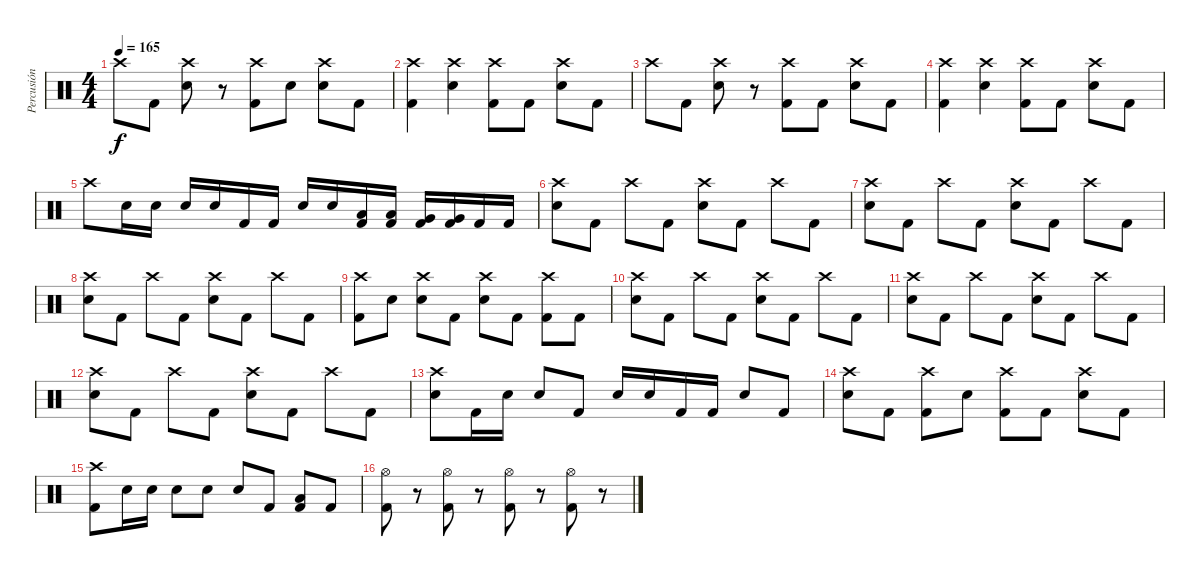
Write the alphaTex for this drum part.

\track ("Percusión" "Percusión") {instrument percussion}
\staff {score}
\articulation defaults
\ts (4 4)
\tempo 165
\clef neutral
\ks c "Crash high (hit)".8{dy f} "Kick (hit) 2".8
("Crash high (hit)" "Electric Snare (hit)").8 r.8 ("Crash high (hit)" "Kick (hit) 2").8 "Electric Snare (hit)".8 ("Crash high (hit)" "Electric Snare (hit)").8 "Kick (hit) 2".8 |
("Crash high (hit)" "Kick (hit) 2").4 ("Crash high (hit)" "Electric Snare (hit)").4 ("Crash high (hit)" "Kick (hit) 2").8 "Kick (hit) 2".8 ("Crash high (hit)" "Electric Snare (hit)").8 "Kick (hit) 2".8 |
"Crash high (hit)".8 "Kick (hit) 2".8 ("Crash high (hit)" "Electric Snare (hit)").8 r.8 ("Crash high (hit)" "Kick (hit) 2").8 "Kick (hit) 2".8 ("Crash high (hit)" "Electric Snare (hit)").8 "Kick (hit) 2".8 |
("Crash high (hit)" "Kick (hit) 2").4 ("Crash high (hit)" "Electric Snare (hit)").4 ("Crash high (hit)" "Kick (hit) 2").8 "Kick (hit) 2".8 ("Crash high (hit)" "Electric Snare (hit)").8 "Kick (hit) 2".8 |
"Crash high (hit)".8 "Electric Snare (hit)".16 "Electric Snare (hit)".16 "Electric Snare (hit)".16 "Electric Snare (hit)".16 "Kick (hit) 2".16 "Kick (hit) 2".16 "Electric Snare (hit)".16 "Electric Snare (hit)".16 ("Low Tom (hit)" "Kick (hit) 2").16 ("Low Tom (hit)" "Kick (hit) 2").16 ("Very Low Tom (hit)" "Kick (hit) 2").16 ("Very Low Tom (hit)" "Kick (hit) 2").16 "Kick (hit) 2".16 "Kick (hit) 2".16 |
("Crash high (hit)" "Electric Snare (hit)").8 "Kick (hit) 2".8 "Crash high (hit)".8 "Kick (hit) 2".8 ("Crash high (hit)" "Electric Snare (hit)").8 "Kick (hit) 2".8 "Crash high (hit)".8 "Kick (hit) 2".8 |
("Crash high (hit)" "Electric Snare (hit)").8 "Kick (hit) 2".8 "Crash high (hit)".8 "Kick (hit) 2".8 ("Crash high (hit)" "Electric Snare (hit)").8 "Kick (hit) 2".8 "Crash high (hit)".8 "Kick (hit) 2".8 |
("Crash high (hit)" "Electric Snare (hit)").8 "Kick (hit) 2".8 "Crash high (hit)".8 "Kick (hit) 2".8 ("Crash high (hit)" "Electric Snare (hit)").8 "Kick (hit) 2".8 "Crash high (hit)".8 "Kick (hit) 2".8 |
("Crash high (hit)" "Kick (hit) 2").8 "Electric Snare (hit)".8 ("Crash high (hit)" "Electric Snare (hit)").8 "Kick (hit) 2".8 ("Crash high (hit)" "Electric Snare (hit)").8 "Kick (hit) 2".8 ("Crash high (hit)" "Kick (hit) 2").8 "Kick (hit) 2".8 |
("Crash high (hit)" "Electric Snare (hit)").8 "Kick (hit) 2".8 "Crash high (hit)".8 "Kick (hit) 2".8 ("Crash high (hit)" "Electric Snare (hit)").8 "Kick (hit) 2".8 "Crash high (hit)".8 "Kick (hit) 2".8 |
("Crash high (hit)" "Electric Snare (hit)").8 "Kick (hit) 2".8 "Crash high (hit)".8 "Kick (hit) 2".8 ("Crash high (hit)" "Electric Snare (hit)").8 "Kick (hit) 2".8 "Crash high (hit)".8 "Kick (hit) 2".8 |
("Crash high (hit)" "Electric Snare (hit)").8 "Kick (hit) 2".8 "Crash high (hit)".8 "Kick (hit) 2".8 ("Crash high (hit)" "Electric Snare (hit)").8 "Kick (hit) 2".8 "Crash high (hit)".8 "Kick (hit) 2".8 |
("Crash high (hit)" "Electric Snare (hit)").8 "Kick (hit) 2".16 "Electric Snare (hit)".16 "Electric Snare (hit)".8 "Kick (hit) 2".8 "Electric Snare (hit)".16 "Electric Snare (hit)".16 "Kick (hit) 2".16 "Kick (hit) 2".16 "Electric Snare (hit)".8 "Kick (hit) 2".8 |
("Crash high (hit)" "Electric Snare (hit)").8 "Kick (hit) 2".8 ("Crash high (hit)" "Kick (hit) 2").8 "Electric Snare (hit)".8 ("Crash high (hit)" "Kick (hit) 2").8 "Kick (hit) 2".8 ("Crash high (hit)" "Electric Snare (hit)").8 "Kick (hit) 2".8 |
("Crash high (hit)" "Kick (hit) 2").8 "Electric Snare (hit)".16 "Electric Snare (hit)".16 "Electric Snare (hit)".8 "Electric Snare (hit)".8 "Electric Snare (hit)".8 "Kick (hit) 2".8 ("Low Tom (hit)" "Kick (hit) 2").8 "Kick (hit) 2".8 |
("Hi-Hat (open)" "Kick (hit) 2").8 r.8 ("Hi-Hat (open)" "Kick (hit) 2").8 r.8 ("Hi-Hat (open)" "Kick (hit) 2").8 r.8 ("Hi-Hat (open)" "Kick (hit) 2").8 r.8
